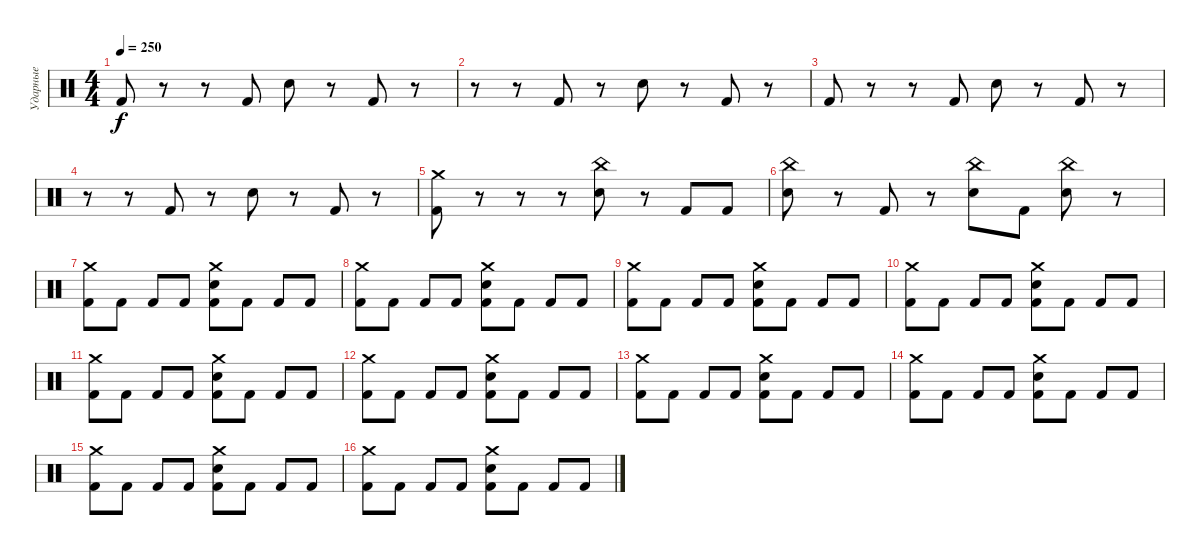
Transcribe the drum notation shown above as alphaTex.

\track ("Ударные" "Ударные") {instrument percussion}
\staff {score}
\articulation defaults
\ts (4 4)
\tempo 250
\clef neutral
\ks c "Kick (hit) 2".8{dy f}
r.8 r.8 "Kick (hit) 2".8 "Snare (hit) 2".8 r.8 "Kick (hit) 2".8 r.8 |
r.8 r.8 "Kick (hit) 2".8 r.8 "Snare (hit) 2".8 r.8 "Kick (hit) 2".8 r.8 |
"Kick (hit) 2".8 r.8 r.8 "Kick (hit) 2".8 "Snare (hit) 2".8 r.8 "Kick (hit) 2".8 r.8 |
r.8 r.8 "Kick (hit) 2".8 r.8 "Snare (hit) 2".8 r.8 "Kick (hit) 2".8 r.8 |
("Crash medium (hit)" "Kick (hit) 2").8 r.8 r.8 r.8 ("Snare (hit) 2" "China (hit)").8 r.8 "Kick (hit) 2".8 "Kick (hit) 2".8 |
("Snare (hit) 2" "China (hit)").8 r.8 "Kick (hit) 2".8 r.8 ("Snare (hit) 2" "China (hit)").8 "Kick (hit) 2".8 ("Snare (hit) 2" "China (hit)").8 r.8 |
("Crash medium (hit)" "Kick (hit) 2").8 "Kick (hit) 2".8 "Kick (hit) 2".8 "Kick (hit) 2".8 ("Crash medium (hit)" "Snare (hit) 2" "Kick (hit) 2").8 "Kick (hit) 2".8 "Kick (hit) 2".8 "Kick (hit) 2".8 |
("Crash medium (hit)" "Kick (hit) 2").8 "Kick (hit) 2".8 "Kick (hit) 2".8 "Kick (hit) 2".8 ("Crash medium (hit)" "Snare (hit) 2" "Kick (hit) 2").8 "Kick (hit) 2".8 "Kick (hit) 2".8 "Kick (hit) 2".8 |
("Crash medium (hit)" "Kick (hit) 2").8 "Kick (hit) 2".8 "Kick (hit) 2".8 "Kick (hit) 2".8 ("Crash medium (hit)" "Snare (hit) 2" "Kick (hit) 2").8 "Kick (hit) 2".8 "Kick (hit) 2".8 "Kick (hit) 2".8 |
("Crash medium (hit)" "Kick (hit) 2").8 "Kick (hit) 2".8 "Kick (hit) 2".8 "Kick (hit) 2".8 ("Crash medium (hit)" "Snare (hit) 2" "Kick (hit) 2").8 "Kick (hit) 2".8 "Kick (hit) 2".8 "Kick (hit) 2".8 |
("Crash medium (hit)" "Kick (hit) 2").8 "Kick (hit) 2".8 "Kick (hit) 2".8 "Kick (hit) 2".8 ("Crash medium (hit)" "Snare (hit) 2" "Kick (hit) 2").8 "Kick (hit) 2".8 "Kick (hit) 2".8 "Kick (hit) 2".8 |
("Crash medium (hit)" "Kick (hit) 2").8 "Kick (hit) 2".8 "Kick (hit) 2".8 "Kick (hit) 2".8 ("Crash medium (hit)" "Snare (hit) 2" "Kick (hit) 2").8 "Kick (hit) 2".8 "Kick (hit) 2".8 "Kick (hit) 2".8 |
("Crash medium (hit)" "Kick (hit) 2").8 "Kick (hit) 2".8 "Kick (hit) 2".8 "Kick (hit) 2".8 ("Crash medium (hit)" "Snare (hit) 2" "Kick (hit) 2").8 "Kick (hit) 2".8 "Kick (hit) 2".8 "Kick (hit) 2".8 |
("Crash medium (hit)" "Kick (hit) 2").8 "Kick (hit) 2".8 "Kick (hit) 2".8 "Kick (hit) 2".8 ("Crash medium (hit)" "Snare (hit) 2" "Kick (hit) 2").8 "Kick (hit) 2".8 "Kick (hit) 2".8 "Kick (hit) 2".8 |
("Crash medium (hit)" "Kick (hit) 2").8 "Kick (hit) 2".8 "Kick (hit) 2".8 "Kick (hit) 2".8 ("Crash medium (hit)" "Snare (hit) 2" "Kick (hit) 2").8 "Kick (hit) 2".8 "Kick (hit) 2".8 "Kick (hit) 2".8 |
("Crash medium (hit)" "Kick (hit) 2").8 "Kick (hit) 2".8 "Kick (hit) 2".8 "Kick (hit) 2".8 ("Crash medium (hit)" "Snare (hit) 2" "Kick (hit) 2").8 "Kick (hit) 2".8 "Kick (hit) 2".8 "Kick (hit) 2".8
